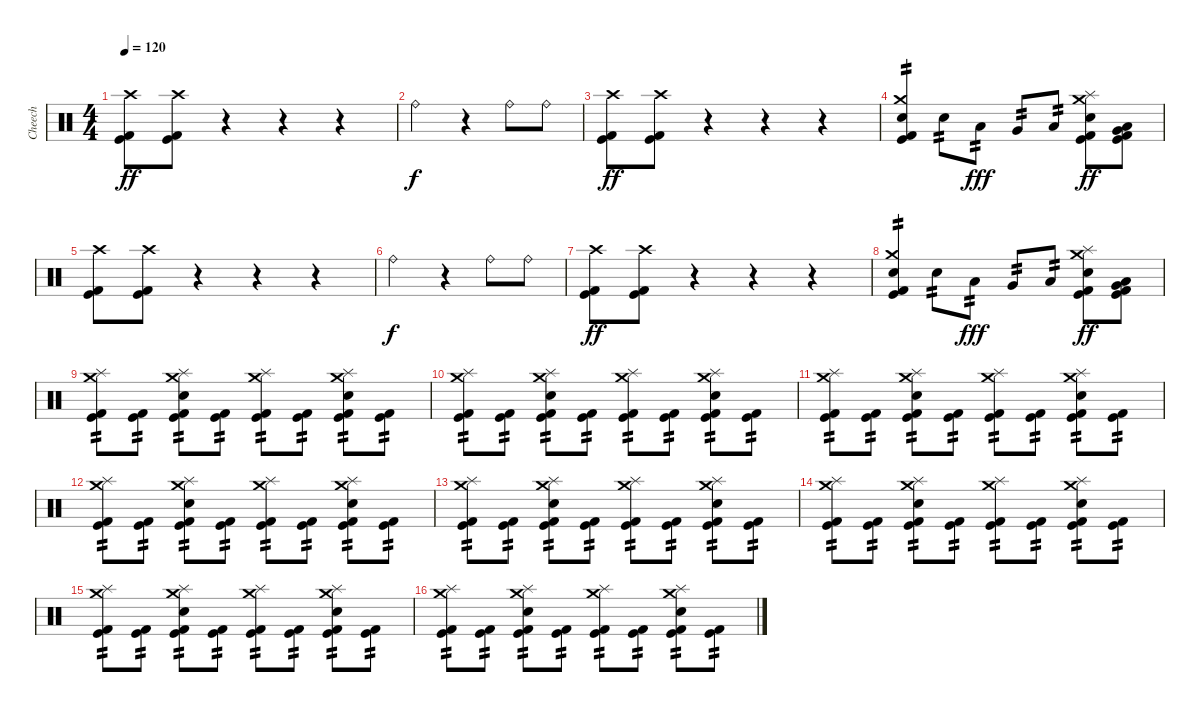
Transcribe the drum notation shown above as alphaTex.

\track ("Cheech" "Cheech") {instrument percussion}
\staff {score}
\articulation defaults
\ts (4 4)
\tempo 120
\clef neutral
\ks c
("Crash high (hit)" "Kick (hit) 2" "Kick (hit)").8{dy ff} ("Crash high (hit)" "Kick (hit) 2" "Kick (hit)").8 r.4 r.4 r.4 |
"Ride (bell)".2{dy f} r.4 "Ride (bell)".8 "Ride (bell)".8 |
("Crash high (hit)" "Kick (hit) 2" "Kick (hit)").8{dy ff} ("Crash high (hit)" "Kick (hit) 2" "Kick (hit)").8 r.4 r.4 r.4 |
("Crash medium (hit)" "Electric Snare (hit)" "Kick (hit) 2" "Kick (hit)").4{tp 2} "Electric Snare (hit)".8{tp 2} "Low Tom (hit)".8{tp 2 dy fff} "Very Low Tom (hit)".8{tp 2} "Low Floor Tom (hit)".8{tp 2} ("Splash (hit)" "Crash medium (hit)" "Electric Snare (hit)" "Kick (hit) 2" "Kick (hit)").8{dy ff} ("Very Low Tom (hit)" "Low Floor Tom (hit)" "Kick (hit) 2" "Kick (hit)").8 |
("Crash high (hit)" "Kick (hit) 2" "Kick (hit)").8 ("Crash high (hit)" "Kick (hit) 2" "Kick (hit)").8 r.4 r.4 r.4 |
"Ride (bell)".2{dy f} r.4 "Ride (bell)".8 "Ride (bell)".8 |
("Crash high (hit)" "Kick (hit) 2" "Kick (hit)").8{dy ff} ("Crash high (hit)" "Kick (hit) 2" "Kick (hit)").8 r.4 r.4 r.4 |
("Crash medium (hit)" "Electric Snare (hit)" "Kick (hit) 2" "Kick (hit)").4{tp 2} "Electric Snare (hit)".8{tp 2} "Low Tom (hit)".8{tp 2 dy fff} "Very Low Tom (hit)".8{tp 2} "Low Floor Tom (hit)".8{tp 2} ("Splash (hit)" "Crash medium (hit)" "Electric Snare (hit)" "Kick (hit) 2" "Kick (hit)").8{dy ff} ("Very Low Tom (hit)" "Low Floor Tom (hit)" "Kick (hit) 2" "Kick (hit)").8 |
("Splash (hit)" "Crash medium (hit)" "Kick (hit) 2" "Kick (hit)").8{tp 2} ("Kick (hit) 2" "Kick (hit)").8{tp 2} ("Splash (hit)" "Crash medium (hit)" "Electric Snare (hit)" "Kick (hit) 2" "Kick (hit)").8{tp 2} ("Kick (hit) 2" "Kick (hit)").8{tp 2} ("Splash (hit)" "Crash medium (hit)" "Kick (hit) 2" "Kick (hit)").8{tp 2} ("Kick (hit) 2" "Kick (hit)").8{tp 2} ("Splash (hit)" "Crash medium (hit)" "Electric Snare (hit)" "Kick (hit) 2" "Kick (hit)").8{tp 2} ("Kick (hit) 2" "Kick (hit)").8{tp 2} |
("Splash (hit)" "Crash medium (hit)" "Kick (hit) 2" "Kick (hit)").8{tp 2} ("Kick (hit) 2" "Kick (hit)").8{tp 2} ("Splash (hit)" "Crash medium (hit)" "Electric Snare (hit)" "Kick (hit) 2" "Kick (hit)").8{tp 2} ("Kick (hit) 2" "Kick (hit)").8{tp 2} ("Splash (hit)" "Crash medium (hit)" "Kick (hit) 2" "Kick (hit)").8{tp 2} ("Kick (hit) 2" "Kick (hit)").8{tp 2} ("Splash (hit)" "Crash medium (hit)" "Electric Snare (hit)" "Kick (hit) 2" "Kick (hit)").8{tp 2} ("Kick (hit) 2" "Kick (hit)").8{tp 2} |
("Splash (hit)" "Crash medium (hit)" "Kick (hit) 2" "Kick (hit)").8{tp 2} ("Kick (hit) 2" "Kick (hit)").8{tp 2} ("Splash (hit)" "Crash medium (hit)" "Electric Snare (hit)" "Kick (hit) 2" "Kick (hit)").8{tp 2} ("Kick (hit) 2" "Kick (hit)").8{tp 2} ("Splash (hit)" "Crash medium (hit)" "Kick (hit) 2" "Kick (hit)").8{tp 2} ("Kick (hit) 2" "Kick (hit)").8{tp 2} ("Splash (hit)" "Crash medium (hit)" "Electric Snare (hit)" "Kick (hit) 2" "Kick (hit)").8{tp 2} ("Kick (hit) 2" "Kick (hit)").8{tp 2} |
("Splash (hit)" "Crash medium (hit)" "Kick (hit) 2" "Kick (hit)").8{tp 2} ("Kick (hit) 2" "Kick (hit)").8{tp 2} ("Splash (hit)" "Crash medium (hit)" "Electric Snare (hit)" "Kick (hit) 2" "Kick (hit)").8{tp 2} ("Kick (hit) 2" "Kick (hit)").8{tp 2} ("Splash (hit)" "Crash medium (hit)" "Kick (hit) 2" "Kick (hit)").8{tp 2} ("Kick (hit) 2" "Kick (hit)").8{tp 2} ("Splash (hit)" "Crash medium (hit)" "Electric Snare (hit)" "Kick (hit) 2" "Kick (hit)").8{tp 2} ("Kick (hit) 2" "Kick (hit)").8{tp 2} |
("Splash (hit)" "Crash medium (hit)" "Kick (hit) 2" "Kick (hit)").8{tp 2} ("Kick (hit) 2" "Kick (hit)").8{tp 2} ("Splash (hit)" "Crash medium (hit)" "Electric Snare (hit)" "Kick (hit) 2" "Kick (hit)").8{tp 2} ("Kick (hit) 2" "Kick (hit)").8{tp 2} ("Splash (hit)" "Crash medium (hit)" "Kick (hit) 2" "Kick (hit)").8{tp 2} ("Kick (hit) 2" "Kick (hit)").8{tp 2} ("Splash (hit)" "Crash medium (hit)" "Electric Snare (hit)" "Kick (hit) 2" "Kick (hit)").8{tp 2} ("Kick (hit) 2" "Kick (hit)").8{tp 2} |
("Splash (hit)" "Crash medium (hit)" "Kick (hit) 2" "Kick (hit)").8{tp 2} ("Kick (hit) 2" "Kick (hit)").8{tp 2} ("Splash (hit)" "Crash medium (hit)" "Electric Snare (hit)" "Kick (hit) 2" "Kick (hit)").8{tp 2} ("Kick (hit) 2" "Kick (hit)").8{tp 2} ("Splash (hit)" "Crash medium (hit)" "Kick (hit) 2" "Kick (hit)").8{tp 2} ("Kick (hit) 2" "Kick (hit)").8{tp 2} ("Splash (hit)" "Crash medium (hit)" "Electric Snare (hit)" "Kick (hit) 2" "Kick (hit)").8{tp 2} ("Kick (hit) 2" "Kick (hit)").8{tp 2} |
("Splash (hit)" "Crash medium (hit)" "Kick (hit) 2" "Kick (hit)").8{tp 2} ("Kick (hit) 2" "Kick (hit)").8{tp 2} ("Splash (hit)" "Crash medium (hit)" "Electric Snare (hit)" "Kick (hit) 2" "Kick (hit)").8{tp 2} ("Kick (hit) 2" "Kick (hit)").8{tp 2} ("Splash (hit)" "Crash medium (hit)" "Kick (hit) 2" "Kick (hit)").8{tp 2} ("Kick (hit) 2" "Kick (hit)").8{tp 2} ("Splash (hit)" "Crash medium (hit)" "Electric Snare (hit)" "Kick (hit) 2" "Kick (hit)").8{tp 2} ("Kick (hit) 2" "Kick (hit)").8{tp 2} |
("Splash (hit)" "Crash medium (hit)" "Kick (hit) 2" "Kick (hit)").8{tp 2} ("Kick (hit) 2" "Kick (hit)").8{tp 2} ("Splash (hit)" "Crash medium (hit)" "Electric Snare (hit)" "Kick (hit) 2" "Kick (hit)").8{tp 2} ("Kick (hit) 2" "Kick (hit)").8{tp 2} ("Splash (hit)" "Crash medium (hit)" "Kick (hit) 2" "Kick (hit)").8{tp 2} ("Kick (hit) 2" "Kick (hit)").8{tp 2} ("Splash (hit)" "Crash medium (hit)" "Electric Snare (hit)" "Kick (hit) 2" "Kick (hit)").8{tp 2} ("Kick (hit) 2" "Kick (hit)").8{tp 2}
